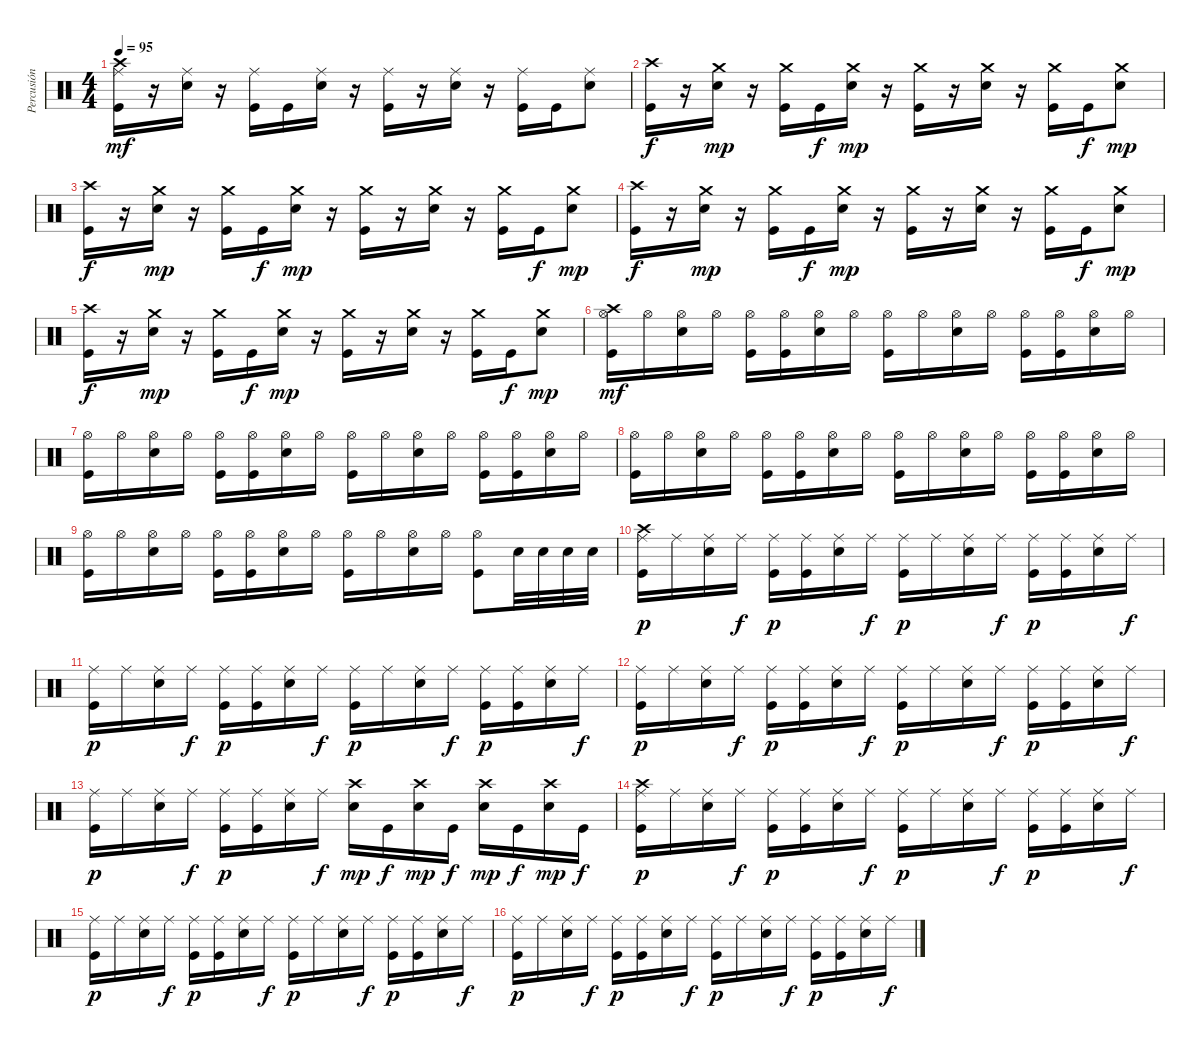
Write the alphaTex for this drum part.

\track ("Percusión" "Percusión") {instrument percussion}
\staff {score}
\articulation defaults
\ts (4 4)
\tempo 95
\clef neutral
\ks c
("Ride (middle)" "Kick (hit)" "Crash high (hit)").16{dy mf} r.16 ("Ride (middle)" "Snare (hit) 2").16 r.16 ("Ride (middle)" "Kick (hit)").16 "Kick (hit)".16 ("Ride (middle)" "Snare (hit) 2").16 r.16 ("Ride (middle)" "Kick (hit)").16 r.16 ("Ride (middle)" "Snare (hit) 2").16 r.16 ("Ride (middle)" "Kick (hit)").16 "Kick (hit)".16 ("Ride (middle)" "Snare (hit) 2").8 |
("Kick (hit)" "Crash high (hit)").16{dy f} r.16 ("Snare (hit) 2" "Crash medium (hit)").16{dy mp} r.16 ("Kick (hit)" "Crash medium (hit)").16 "Kick (hit)".16{dy f} ("Snare (hit) 2" "Crash medium (hit)").16{dy mp} r.16 ("Kick (hit)" "Crash medium (hit)").16 r.16 ("Snare (hit) 2" "Crash medium (hit)").16 r.16 ("Kick (hit)" "Crash medium (hit)").16 "Kick (hit)".16{dy f} ("Snare (hit) 2" "Crash medium (hit)").8{dy mp} |
("Kick (hit)" "Crash high (hit)").16{dy f} r.16 ("Snare (hit) 2" "Crash medium (hit)").16{dy mp} r.16 ("Kick (hit)" "Crash medium (hit)").16 "Kick (hit)".16{dy f} ("Snare (hit) 2" "Crash medium (hit)").16{dy mp} r.16 ("Kick (hit)" "Crash medium (hit)").16 r.16 ("Snare (hit) 2" "Crash medium (hit)").16 r.16 ("Kick (hit)" "Crash medium (hit)").16 "Kick (hit)".16{dy f} ("Snare (hit) 2" "Crash medium (hit)").8{dy mp} |
("Kick (hit)" "Crash high (hit)").16{dy f} r.16 ("Snare (hit) 2" "Crash medium (hit)").16{dy mp} r.16 ("Kick (hit)" "Crash medium (hit)").16 "Kick (hit)".16{dy f} ("Snare (hit) 2" "Crash medium (hit)").16{dy mp} r.16 ("Kick (hit)" "Crash medium (hit)").16 r.16 ("Snare (hit) 2" "Crash medium (hit)").16 r.16 ("Kick (hit)" "Crash medium (hit)").16 "Kick (hit)".16{dy f} ("Snare (hit) 2" "Crash medium (hit)").8{dy mp} |
("Kick (hit)" "Crash high (hit)").16{dy f} r.16 ("Snare (hit) 2" "Crash medium (hit)").16{dy mp} r.16 ("Kick (hit)" "Crash medium (hit)").16 "Kick (hit)".16{dy f} ("Snare (hit) 2" "Crash medium (hit)").16{dy mp} r.16 ("Kick (hit)" "Crash medium (hit)").16 r.16 ("Snare (hit) 2" "Crash medium (hit)").16 r.16 ("Kick (hit)" "Crash medium (hit)").16 "Kick (hit)".16{dy f} ("Snare (hit) 2" "Crash medium (hit)").8{dy mp} |
("Kick (hit)" "Hi-Hat (open)" "Crash high (hit)").16{dy mf} "Hi-Hat (open)".16 ("Snare (hit) 2" "Hi-Hat (open)").16 "Hi-Hat (open)".16 ("Kick (hit)" "Hi-Hat (open)").16 ("Kick (hit)" "Hi-Hat (open)").16 ("Snare (hit) 2" "Hi-Hat (open)").16 "Hi-Hat (open)".16 ("Kick (hit)" "Hi-Hat (open)").16 "Hi-Hat (open)".16 ("Snare (hit) 2" "Hi-Hat (open)").16 "Hi-Hat (open)".16 ("Kick (hit)" "Hi-Hat (open)").16 ("Kick (hit)" "Hi-Hat (open)").16 ("Snare (hit) 2" "Hi-Hat (open)").16 "Hi-Hat (open)".16 |
("Kick (hit)" "Hi-Hat (open)").16 "Hi-Hat (open)".16 ("Snare (hit) 2" "Hi-Hat (open)").16 "Hi-Hat (open)".16 ("Kick (hit)" "Hi-Hat (open)").16 ("Kick (hit)" "Hi-Hat (open)").16 ("Snare (hit) 2" "Hi-Hat (open)").16 "Hi-Hat (open)".16 ("Kick (hit)" "Hi-Hat (open)").16 "Hi-Hat (open)".16 ("Snare (hit) 2" "Hi-Hat (open)").16 "Hi-Hat (open)".16 ("Kick (hit)" "Hi-Hat (open)").16 ("Kick (hit)" "Hi-Hat (open)").16 ("Snare (hit) 2" "Hi-Hat (open)").16 "Hi-Hat (open)".16 |
("Kick (hit)" "Hi-Hat (open)").16 "Hi-Hat (open)".16 ("Snare (hit) 2" "Hi-Hat (open)").16 "Hi-Hat (open)".16 ("Kick (hit)" "Hi-Hat (open)").16 ("Kick (hit)" "Hi-Hat (open)").16 ("Snare (hit) 2" "Hi-Hat (open)").16 "Hi-Hat (open)".16 ("Kick (hit)" "Hi-Hat (open)").16 "Hi-Hat (open)".16 ("Snare (hit) 2" "Hi-Hat (open)").16 "Hi-Hat (open)".16 ("Kick (hit)" "Hi-Hat (open)").16 ("Kick (hit)" "Hi-Hat (open)").16 ("Snare (hit) 2" "Hi-Hat (open)").16 "Hi-Hat (open)".16 |
("Kick (hit)" "Hi-Hat (open)").16 "Hi-Hat (open)".16 ("Snare (hit) 2" "Hi-Hat (open)").16 "Hi-Hat (open)".16 ("Kick (hit)" "Hi-Hat (open)").16 ("Kick (hit)" "Hi-Hat (open)").16 ("Snare (hit) 2" "Hi-Hat (open)").16 "Hi-Hat (open)".16 ("Kick (hit)" "Hi-Hat (open)").16 "Hi-Hat (open)".16 ("Snare (hit) 2" "Hi-Hat (open)").16 "Hi-Hat (open)".16 ("Kick (hit)" "Hi-Hat (open)").8 "Snare (hit) 2".32 "Snare (hit) 2".32 "Snare (hit) 2".32 "Snare (hit) 2".32 |
("Ride (middle)" "Kick (hit)" "Crash high (hit)").16{dy p} "Ride (middle)".16 ("Ride (middle)" "Snare (hit) 2").16 "Ride (middle)".16{dy f} ("Ride (middle)" "Kick (hit)").16{dy p} ("Ride (middle)" "Kick (hit)").16 ("Ride (middle)" "Snare (hit) 2").16 "Ride (middle)".16{dy f} ("Ride (middle)" "Kick (hit)").16{dy p} "Ride (middle)".16 ("Ride (middle)" "Snare (hit) 2").16 "Ride (middle)".16{dy f} ("Ride (middle)" "Kick (hit)").16{dy p} ("Ride (middle)" "Kick (hit)").16 ("Ride (middle)" "Snare (hit) 2").16 "Ride (middle)".16{dy f} |
("Ride (middle)" "Kick (hit)").16{dy p} "Ride (middle)".16 ("Ride (middle)" "Snare (hit) 2").16 "Ride (middle)".16{dy f} ("Ride (middle)" "Kick (hit)").16{dy p} ("Ride (middle)" "Kick (hit)").16 ("Ride (middle)" "Snare (hit) 2").16 "Ride (middle)".16{dy f} ("Ride (middle)" "Kick (hit)").16{dy p} "Ride (middle)".16 ("Ride (middle)" "Snare (hit) 2").16 "Ride (middle)".16{dy f} ("Ride (middle)" "Kick (hit)").16{dy p} ("Ride (middle)" "Kick (hit)").16 ("Ride (middle)" "Snare (hit) 2").16 "Ride (middle)".16{dy f} |
("Ride (middle)" "Kick (hit)").16{dy p} "Ride (middle)".16 ("Ride (middle)" "Snare (hit) 2").16 "Ride (middle)".16{dy f} ("Ride (middle)" "Kick (hit)").16{dy p} ("Ride (middle)" "Kick (hit)").16 ("Ride (middle)" "Snare (hit) 2").16 "Ride (middle)".16{dy f} ("Ride (middle)" "Kick (hit)").16{dy p} "Ride (middle)".16 ("Ride (middle)" "Snare (hit) 2").16 "Ride (middle)".16{dy f} ("Ride (middle)" "Kick (hit)").16{dy p} ("Ride (middle)" "Kick (hit)").16 ("Ride (middle)" "Snare (hit) 2").16 "Ride (middle)".16{dy f} |
("Ride (middle)" "Kick (hit)").16{dy p} "Ride (middle)".16 ("Ride (middle)" "Snare (hit) 2").16 "Ride (middle)".16{dy f} ("Ride (middle)" "Kick (hit)").16{dy p} ("Ride (middle)" "Kick (hit)").16 ("Ride (middle)" "Snare (hit) 2").16 "Ride (middle)".16{dy f} ("Snare (hit) 2" "Crash high (hit)").16{dy mp} "Kick (hit)".16{dy f} ("Snare (hit) 2" "Crash high (hit)").16{dy mp} "Kick (hit)".16{dy f} ("Snare (hit) 2" "Crash high (hit)").16{dy mp} "Kick (hit)".16{dy f} ("Snare (hit) 2" "Crash high (hit)").16{dy mp} "Kick (hit)".16{dy f} |
("Ride (middle)" "Kick (hit)" "Crash high (hit)").16{dy p} "Ride (middle)".16 ("Ride (middle)" "Snare (hit) 2").16 "Ride (middle)".16{dy f} ("Ride (middle)" "Kick (hit)").16{dy p} ("Ride (middle)" "Kick (hit)").16 ("Ride (middle)" "Snare (hit) 2").16 "Ride (middle)".16{dy f} ("Ride (middle)" "Kick (hit)").16{dy p} "Ride (middle)".16 ("Ride (middle)" "Snare (hit) 2").16 "Ride (middle)".16{dy f} ("Ride (middle)" "Kick (hit)").16{dy p} ("Ride (middle)" "Kick (hit)").16 ("Ride (middle)" "Snare (hit) 2").16 "Ride (middle)".16{dy f} |
("Ride (middle)" "Kick (hit)").16{dy p} "Ride (middle)".16 ("Ride (middle)" "Snare (hit) 2").16 "Ride (middle)".16{dy f} ("Ride (middle)" "Kick (hit)").16{dy p} ("Ride (middle)" "Kick (hit)").16 ("Ride (middle)" "Snare (hit) 2").16 "Ride (middle)".16{dy f} ("Ride (middle)" "Kick (hit)").16{dy p} "Ride (middle)".16 ("Ride (middle)" "Snare (hit) 2").16 "Ride (middle)".16{dy f} ("Ride (middle)" "Kick (hit)").16{dy p} ("Ride (middle)" "Kick (hit)").16 ("Ride (middle)" "Snare (hit) 2").16 "Ride (middle)".16{dy f} |
("Ride (middle)" "Kick (hit)").16{dy p} "Ride (middle)".16 ("Ride (middle)" "Snare (hit) 2").16 "Ride (middle)".16{dy f} ("Ride (middle)" "Kick (hit)").16{dy p} ("Ride (middle)" "Kick (hit)").16 ("Ride (middle)" "Snare (hit) 2").16 "Ride (middle)".16{dy f} ("Ride (middle)" "Kick (hit)").16{dy p} "Ride (middle)".16 ("Ride (middle)" "Snare (hit) 2").16 "Ride (middle)".16{dy f} ("Ride (middle)" "Kick (hit)").16{dy p} ("Ride (middle)" "Kick (hit)").16 ("Ride (middle)" "Snare (hit) 2").16 "Ride (middle)".16{dy f}
